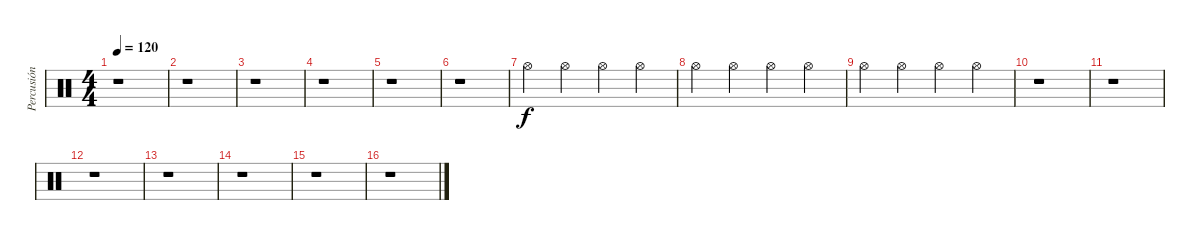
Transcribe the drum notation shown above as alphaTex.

\track ("Percusión" "Percusión") {instrument percussion}
\staff {score}
\articulation defaults
\ts (4 4)
\tempo 120
\clef neutral
\ks c
r.1{dy f} |
r.1 |
r.1 |
r.1 |
r.1 |
r.1 |
"Hi-Hat (open)".4 "Hi-Hat (open)".4 "Hi-Hat (open)".4 "Hi-Hat (open)".4 |
"Hi-Hat (open)".4 "Hi-Hat (open)".4 "Hi-Hat (open)".4 "Hi-Hat (open)".4 |
"Hi-Hat (open)".4 "Hi-Hat (open)".4 "Hi-Hat (open)".4 "Hi-Hat (open)".4 |
r.1 |
r.1 |
r.1 |
r.1 |
r.1 |
r.1 |
r.1
